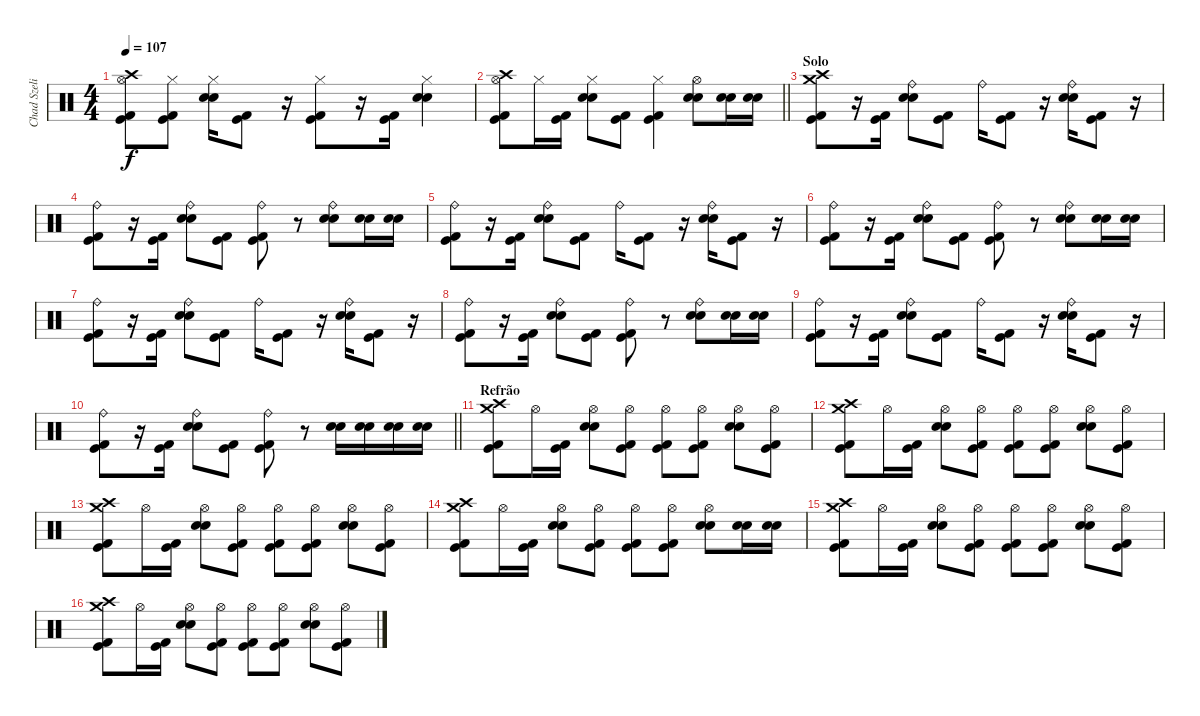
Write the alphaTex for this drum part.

\track ("Chad Szeliga" "Chad Szeli") {instrument percussion}
\staff {score}
\articulation defaults
\ts (4 4)
\tempo 107
\clef neutral
\ks c
("Crash high (hit)" "Kick (hit) 2" "Kick (hit)" "Hi-Hat (open)").8{dy f} ("Kick (hit) 2" "Kick (hit)" "Hi-Hat (closed)").8 ("Snare (hit) 2" "Snare (hit) 2" "Hi-Hat (closed)").16 ("Kick (hit) 2" "Kick (hit)").8 r.16 ("Kick (hit) 2" "Kick (hit)" "Hi-Hat (closed)").8 r.16 ("Kick (hit) 2" "Kick (hit)").16{beam Down} ("Snare (hit) 2" "Snare (hit) 2" "Hi-Hat (closed)").4 |
\barLineRight lightlight
("Crash high (hit)" "Kick (hit) 2" "Kick (hit)" "Hi-Hat (open)").8 "Hi-Hat (closed)".16 ("Kick (hit) 2" "Kick (hit)").16 ("Snare (hit) 2" "Snare (hit) 2" "Hi-Hat (closed)").8 ("Kick (hit) 2" "Kick (hit)").8 ("Kick (hit) 2" "Kick (hit)" "Hi-Hat (closed)").4 ("Snare (hit) 2" "Snare (hit) 2" "Hi-Hat (open)").8 ("Snare (hit) 2" "Snare (hit) 2").16 ("Snare (hit) 2" "Snare (hit) 2").16 |
\section ("" "Solo")
("Crash high (hit)" "Kick (hit) 2" "Kick (hit)" "Crash medium (hit)").8 r.16 ("Kick (hit) 2" "Kick (hit)").16{beam Down} ("Snare (hit) 2" "Snare (hit) 2" "Ride (bell)").8 ("Kick (hit) 2" "Kick (hit)").8 "Ride (bell)".16 ("Kick (hit) 2" "Kick (hit)").8 r.16 ("Snare (hit) 2" "Snare (hit) 2" "Ride (bell)").16 ("Kick (hit) 2" "Kick (hit)").8 r.16 |
("Kick (hit) 2" "Kick (hit)" "Ride (bell)").8 r.16 ("Kick (hit) 2" "Kick (hit)").16{beam Down} ("Snare (hit) 2" "Snare (hit) 2" "Ride (bell)").8 ("Kick (hit) 2" "Kick (hit)").8 ("Kick (hit) 2" "Kick (hit)" "Ride (bell)").8 r.8 ("Snare (hit) 2" "Snare (hit) 2" "Ride (bell)").8 ("Snare (hit) 2" "Snare (hit) 2").16 ("Snare (hit) 2" "Snare (hit) 2").16 |
("Kick (hit) 2" "Kick (hit)" "Ride (bell)").8 r.16 ("Kick (hit) 2" "Kick (hit)").16{beam Down} ("Snare (hit) 2" "Snare (hit) 2" "Ride (bell)").8 ("Kick (hit) 2" "Kick (hit)").8 "Ride (bell)".16 ("Kick (hit) 2" "Kick (hit)").8 r.16 ("Snare (hit) 2" "Snare (hit) 2" "Ride (bell)").16 ("Kick (hit) 2" "Kick (hit)").8 r.16 |
("Kick (hit) 2" "Kick (hit)" "Ride (bell)").8 r.16 ("Kick (hit) 2" "Kick (hit)").16{beam Down} ("Snare (hit) 2" "Snare (hit) 2" "Ride (bell)").8 ("Kick (hit) 2" "Kick (hit)").8 ("Kick (hit) 2" "Kick (hit)" "Ride (bell)").8 r.8 ("Snare (hit) 2" "Snare (hit) 2" "Ride (bell)").8 ("Snare (hit) 2" "Snare (hit) 2").16 ("Snare (hit) 2" "Snare (hit) 2").16 |
("Kick (hit) 2" "Kick (hit)" "Ride (bell)").8 r.16 ("Kick (hit) 2" "Kick (hit)").16{beam Down} ("Snare (hit) 2" "Snare (hit) 2" "Ride (bell)").8 ("Kick (hit) 2" "Kick (hit)").8 "Ride (bell)".16 ("Kick (hit) 2" "Kick (hit)").8 r.16 ("Snare (hit) 2" "Snare (hit) 2" "Ride (bell)").16 ("Kick (hit) 2" "Kick (hit)").8 r.16 |
("Kick (hit) 2" "Kick (hit)" "Ride (bell)").8 r.16 ("Kick (hit) 2" "Kick (hit)").16{beam Down} ("Snare (hit) 2" "Snare (hit) 2" "Ride (bell)").8 ("Kick (hit) 2" "Kick (hit)").8 ("Kick (hit) 2" "Kick (hit)" "Ride (bell)").8 r.8 ("Snare (hit) 2" "Snare (hit) 2" "Ride (bell)").8 ("Snare (hit) 2" "Snare (hit) 2").16 ("Snare (hit) 2" "Snare (hit) 2").16 |
("Kick (hit) 2" "Kick (hit)" "Ride (bell)").8 r.16 ("Kick (hit) 2" "Kick (hit)").16{beam Down} ("Snare (hit) 2" "Snare (hit) 2" "Ride (bell)").8 ("Kick (hit) 2" "Kick (hit)").8 "Ride (bell)".16 ("Kick (hit) 2" "Kick (hit)").8 r.16 ("Snare (hit) 2" "Snare (hit) 2" "Ride (bell)").16 ("Kick (hit) 2" "Kick (hit)").8 r.16 |
\barLineRight lightlight
("Kick (hit) 2" "Kick (hit)" "Ride (bell)").8 r.16 ("Kick (hit) 2" "Kick (hit)").16{beam Down} ("Snare (hit) 2" "Snare (hit) 2" "Ride (bell)").8 ("Kick (hit) 2" "Kick (hit)").8 ("Kick (hit) 2" "Kick (hit)" "Ride (bell)").8 r.8 ("Snare (hit) 2" "Snare (hit) 2").16 ("Snare (hit) 2" "Snare (hit) 2").16 ("Snare (hit) 2" "Snare (hit) 2").16 ("Snare (hit) 2" "Snare (hit) 2").16 |
\section ("" "Refrão")
("Crash high (hit)" "Kick (hit) 2" "Kick (hit)" "Crash medium (hit)").8 "Hi-Hat (open)".16 ("Kick (hit) 2" "Kick (hit)").16 ("Snare (hit) 2" "Snare (hit) 2" "Hi-Hat (open)").8 ("Kick (hit) 2" "Kick (hit)" "Hi-Hat (open)").8 ("Kick (hit) 2" "Kick (hit)" "Hi-Hat (open)").8 ("Kick (hit) 2" "Kick (hit)" "Hi-Hat (open)").8 ("Snare (hit) 2" "Snare (hit) 2" "Hi-Hat (open)").8 ("Kick (hit) 2" "Kick (hit)" "Hi-Hat (open)").8 |
("Crash high (hit)" "Kick (hit) 2" "Kick (hit)" "Crash medium (hit)").8 "Hi-Hat (open)".16 ("Kick (hit) 2" "Kick (hit)").16 ("Snare (hit) 2" "Snare (hit) 2" "Hi-Hat (open)").8 ("Kick (hit) 2" "Kick (hit)" "Hi-Hat (open)").8 ("Kick (hit) 2" "Kick (hit)" "Hi-Hat (open)").8 ("Kick (hit) 2" "Kick (hit)" "Hi-Hat (open)").8 ("Snare (hit) 2" "Snare (hit) 2" "Hi-Hat (open)").8 ("Kick (hit) 2" "Kick (hit)" "Hi-Hat (open)").8 |
("Crash high (hit)" "Kick (hit) 2" "Kick (hit)" "Crash medium (hit)").8 "Hi-Hat (open)".16 ("Kick (hit) 2" "Kick (hit)").16 ("Snare (hit) 2" "Snare (hit) 2" "Hi-Hat (open)").8 ("Kick (hit) 2" "Kick (hit)" "Hi-Hat (open)").8 ("Kick (hit) 2" "Kick (hit)" "Hi-Hat (open)").8 ("Kick (hit) 2" "Kick (hit)" "Hi-Hat (open)").8 ("Snare (hit) 2" "Snare (hit) 2" "Hi-Hat (open)").8 ("Kick (hit) 2" "Kick (hit)" "Hi-Hat (open)").8 |
("Crash high (hit)" "Kick (hit) 2" "Kick (hit)" "Crash medium (hit)").8 "Hi-Hat (open)".16 ("Kick (hit) 2" "Kick (hit)").16 ("Snare (hit) 2" "Snare (hit) 2" "Hi-Hat (open)").8 ("Kick (hit) 2" "Kick (hit)" "Hi-Hat (open)").8 ("Kick (hit) 2" "Kick (hit)" "Hi-Hat (open)").8 ("Kick (hit) 2" "Kick (hit)" "Hi-Hat (open)").8 ("Snare (hit) 2" "Snare (hit) 2" "Hi-Hat (open)").8 ("Snare (hit) 2" "Snare (hit) 2").16 ("Snare (hit) 2" "Snare (hit) 2").16 |
("Crash high (hit)" "Kick (hit) 2" "Kick (hit)" "Crash medium (hit)").8 "Hi-Hat (open)".16 ("Kick (hit) 2" "Kick (hit)").16 ("Snare (hit) 2" "Snare (hit) 2" "Hi-Hat (open)").8 ("Kick (hit) 2" "Kick (hit)" "Hi-Hat (open)").8 ("Kick (hit) 2" "Kick (hit)" "Hi-Hat (open)").8 ("Kick (hit) 2" "Kick (hit)" "Hi-Hat (open)").8 ("Snare (hit) 2" "Snare (hit) 2" "Hi-Hat (open)").8 ("Kick (hit) 2" "Kick (hit)" "Hi-Hat (open)").8 |
("Crash high (hit)" "Kick (hit) 2" "Kick (hit)" "Crash medium (hit)").8 "Hi-Hat (open)".16 ("Kick (hit) 2" "Kick (hit)").16 ("Snare (hit) 2" "Snare (hit) 2" "Hi-Hat (open)").8 ("Kick (hit) 2" "Kick (hit)" "Hi-Hat (open)").8 ("Kick (hit) 2" "Kick (hit)" "Hi-Hat (open)").8 ("Kick (hit) 2" "Kick (hit)" "Hi-Hat (open)").8 ("Snare (hit) 2" "Snare (hit) 2" "Hi-Hat (open)").8 ("Kick (hit) 2" "Kick (hit)" "Hi-Hat (open)").8
